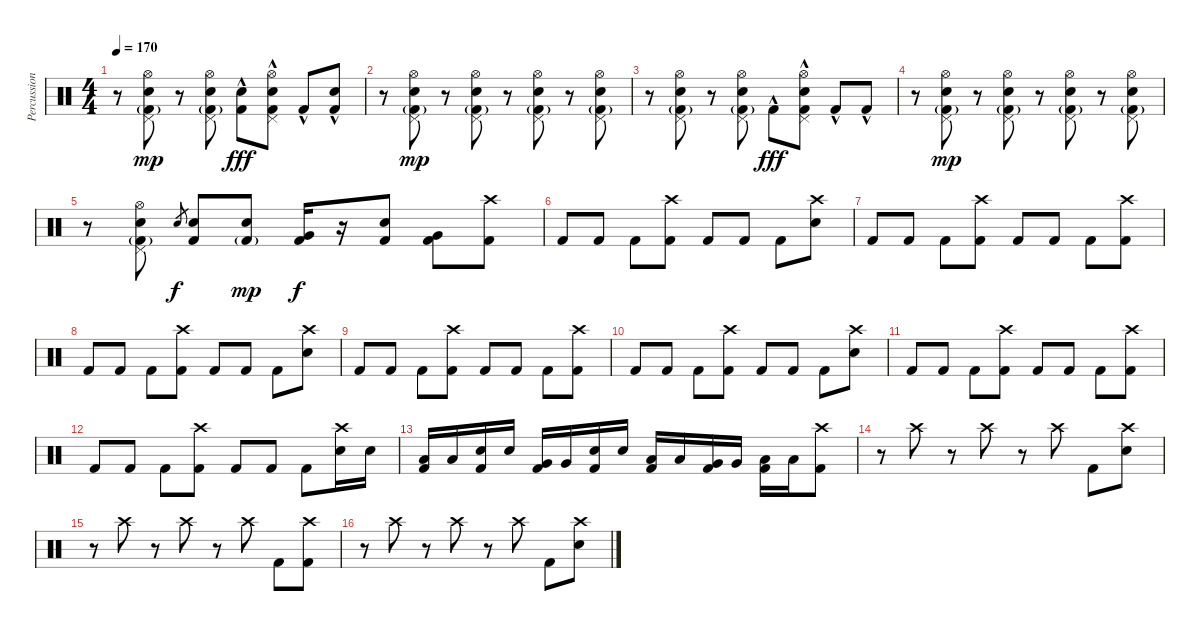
\track ("Percussions" "Percussion") {instrument percussion}
\staff {score}
\articulation defaults
\ts (4 4)
\tempo 170
\clef neutral
\ks c
r.8{dy mp} ("Hi-Hat (open)" "Electric Snare (hit)" "Pedal Hi-Hat (hit)" "Kick (hit) 2"{g}).8 r.8 ("Hi-Hat (open)" "Electric Snare (hit)" "Pedal Hi-Hat (hit)" "Kick (hit) 2"{g}).8 ("Electric Snare (hit)" "Kick (hit) 2"{hac}).8{dy fff} ("Hi-Hat (open)" "Electric Snare (hit)"{hac} "Pedal Hi-Hat (hit)" "Kick (hit) 2"{hac}).8 "Kick (hit) 2"{hac}.8 ("Electric Snare (hit)"{hac} "Kick (hit) 2"{hac}).8 |
r.8 ("Hi-Hat (open)" "Electric Snare (hit)" "Pedal Hi-Hat (hit)" "Kick (hit) 2"{g}).8{dy mp} r.8 ("Hi-Hat (open)" "Electric Snare (hit)" "Pedal Hi-Hat (hit)" "Kick (hit) 2"{g}).8 r.8 ("Hi-Hat (open)" "Electric Snare (hit)" "Pedal Hi-Hat (hit)" "Kick (hit) 2"{g}).8 r.8 ("Hi-Hat (open)" "Electric Snare (hit)" "Pedal Hi-Hat (hit)" "Kick (hit) 2"{g}).8 |
r.8 ("Hi-Hat (open)" "Electric Snare (hit)" "Pedal Hi-Hat (hit)" "Kick (hit) 2"{g}).8 r.8 ("Hi-Hat (open)" "Electric Snare (hit)" "Pedal Hi-Hat (hit)" "Kick (hit) 2"{g}).8 "Kick (hit) 2"{hac}.8{dy fff} ("Hi-Hat (open)" "Electric Snare (hit)" "Pedal Hi-Hat (hit)" "Kick (hit) 2"{hac}).8 "Kick (hit) 2"{hac}.8 "Kick (hit) 2"{hac}.8 |
r.8 ("Hi-Hat (open)" "Electric Snare (hit)" "Pedal Hi-Hat (hit)" "Kick (hit) 2"{g}).8{dy mp} r.8 ("Hi-Hat (open)" "Electric Snare (hit)" "Pedal Hi-Hat (hit)" "Kick (hit) 2"{g}).8 r.8 ("Hi-Hat (open)" "Electric Snare (hit)" "Pedal Hi-Hat (hit)" "Kick (hit) 2"{g}).8 r.8 ("Hi-Hat (open)" "Electric Snare (hit)" "Pedal Hi-Hat (hit)" "Kick (hit) 2"{g}).8 |
r.8 ("Hi-Hat (open)" "Electric Snare (hit)" "Pedal Hi-Hat (hit)" "Kick (hit) 2"{g}).8{volume 13} "Electric Snare (hit)".8{gr dy f} ("Electric Snare (hit)" "Kick (hit) 2").8 ("Electric Snare (hit)" "Kick (hit) 2"{g}).8{dy mp} ("Very Low Tom (hit)" "Kick (hit) 2").16{dy f} r.16 ("Electric Snare (hit)" "Kick (hit) 2").8 ("Very Low Tom (hit)" "Kick (hit) 2").8 ("Crash high (hit)" "Kick (hit) 2").8 |
"Kick (hit) 2".8 "Kick (hit) 2".8 "Kick (hit) 2".8 ("Crash high (hit)" "Kick (hit) 2").8 "Kick (hit) 2".8 "Kick (hit) 2".8 "Kick (hit) 2".8 ("Crash high (hit)" "Electric Snare (hit)").8 |
"Kick (hit) 2".8 "Kick (hit) 2".8 "Kick (hit) 2".8 ("Crash high (hit)" "Kick (hit) 2").8 "Kick (hit) 2".8 "Kick (hit) 2".8 "Kick (hit) 2".8 ("Crash high (hit)" "Kick (hit) 2").8 |
"Kick (hit) 2".8 "Kick (hit) 2".8 "Kick (hit) 2".8 ("Crash high (hit)" "Kick (hit) 2").8 "Kick (hit) 2".8 "Kick (hit) 2".8 "Kick (hit) 2".8 ("Crash high (hit)" "Electric Snare (hit)").8 |
"Kick (hit) 2".8 "Kick (hit) 2".8 "Kick (hit) 2".8 ("Crash high (hit)" "Kick (hit) 2").8 "Kick (hit) 2".8 "Kick (hit) 2".8 "Kick (hit) 2".8 ("Crash high (hit)" "Kick (hit) 2").8 |
"Kick (hit) 2".8 "Kick (hit) 2".8 "Kick (hit) 2".8 ("Crash high (hit)" "Kick (hit) 2").8 "Kick (hit) 2".8 "Kick (hit) 2".8 "Kick (hit) 2".8 ("Crash high (hit)" "Electric Snare (hit)").8 |
"Kick (hit) 2".8 "Kick (hit) 2".8 "Kick (hit) 2".8 ("Crash high (hit)" "Kick (hit) 2").8 "Kick (hit) 2".8 "Kick (hit) 2".8 "Kick (hit) 2".8 ("Crash high (hit)" "Kick (hit) 2").8 |
"Kick (hit) 2".8 "Kick (hit) 2".8 "Kick (hit) 2".8 ("Crash high (hit)" "Kick (hit) 2").8 "Kick (hit) 2".8 "Kick (hit) 2".8 "Kick (hit) 2".8 ("Crash high (hit)" "Electric Snare (hit)").16 "Electric Snare (hit)".16 |
("Low Tom (hit)" "Kick (hit) 2").16 "Low Tom (hit)".16 ("Electric Snare (hit)" "Kick (hit) 2").16 "Electric Snare (hit)".16 ("Very Low Tom (hit)" "Kick (hit) 2").16 "Very Low Tom (hit)".16 ("Electric Snare (hit)" "Kick (hit) 2").16 "Electric Snare (hit)".16 ("Low Tom (hit)" "Kick (hit) 2").16 "Low Tom (hit)".16 ("Very Low Tom (hit)" "Kick (hit) 2").16 "Very Low Tom (hit)".16 ("Low Floor Tom (hit)" "Kick (hit) 2").16 "Low Floor Tom (hit)".16 ("Crash high (hit)" "Kick (hit) 2").8 |
r.8 "Crash high (hit)".8 r.8 "Crash high (hit)".8 r.8 "Crash high (hit)".8 "Kick (hit) 2".8 ("Crash high (hit)" "Electric Snare (hit)").8 |
r.8 "Crash high (hit)".8 r.8 "Crash high (hit)".8 r.8 "Crash high (hit)".8 "Kick (hit) 2".8 ("Crash high (hit)" "Kick (hit) 2").8 |
r.8 "Crash high (hit)".8 r.8 "Crash high (hit)".8 r.8 "Crash high (hit)".8 "Kick (hit) 2".8 ("Crash high (hit)" "Electric Snare (hit)").8
